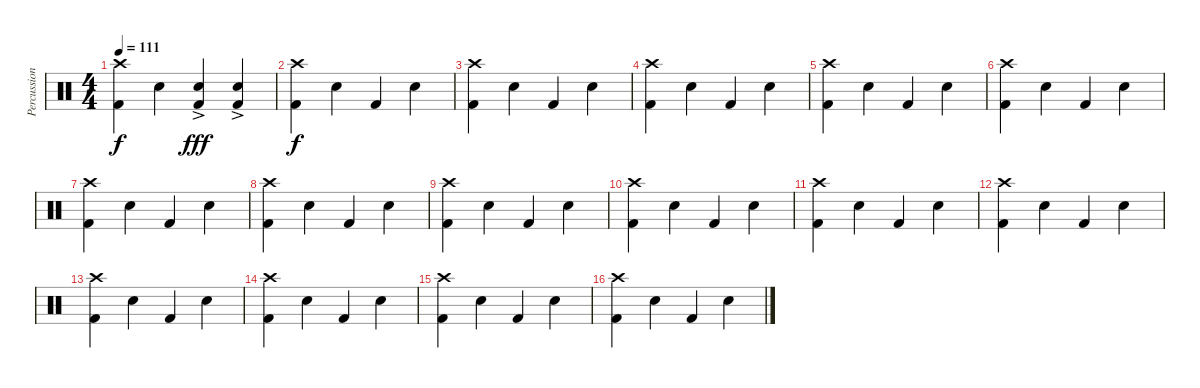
\track ("Percussion" "Percussion") {instrument percussion}
\staff {score}
\articulation defaults
\ts (4 4)
\tempo 111
\clef neutral
\ks c
("Crash high (hit)" "Kick (hit) 2").4{dy f} "Snare (hit) 2".4 ("Snare (hit) 2"{ac} "Kick (hit) 2"{ac}).4{dy fff} ("Snare (hit) 2"{ac} "Kick (hit) 2"{ac}).4 |
("Crash high (hit)" "Kick (hit) 2").4{dy f} "Snare (hit) 2".4 "Kick (hit) 2".4 "Snare (hit) 2".4 |
("Crash high (hit)" "Kick (hit) 2").4 "Snare (hit) 2".4 "Kick (hit) 2".4 "Snare (hit) 2".4 |
("Crash high (hit)" "Kick (hit) 2").4 "Snare (hit) 2".4 "Kick (hit) 2".4 "Snare (hit) 2".4 |
("Crash high (hit)" "Kick (hit) 2").4 "Snare (hit) 2".4 "Kick (hit) 2".4 "Snare (hit) 2".4 |
("Crash high (hit)" "Kick (hit) 2").4 "Snare (hit) 2".4 "Kick (hit) 2".4 "Snare (hit) 2".4 |
("Crash high (hit)" "Kick (hit) 2").4 "Snare (hit) 2".4 "Kick (hit) 2".4 "Snare (hit) 2".4 |
("Crash high (hit)" "Kick (hit) 2").4 "Snare (hit) 2".4 "Kick (hit) 2".4 "Snare (hit) 2".4 |
("Crash high (hit)" "Kick (hit) 2").4 "Snare (hit) 2".4 "Kick (hit) 2".4 "Snare (hit) 2".4 |
("Crash high (hit)" "Kick (hit) 2").4 "Snare (hit) 2".4 "Kick (hit) 2".4 "Snare (hit) 2".4 |
("Crash high (hit)" "Kick (hit) 2").4 "Snare (hit) 2".4 "Kick (hit) 2".4 "Snare (hit) 2".4 |
("Crash high (hit)" "Kick (hit) 2").4 "Snare (hit) 2".4 "Kick (hit) 2".4 "Snare (hit) 2".4 |
("Crash high (hit)" "Kick (hit) 2").4 "Snare (hit) 2".4 "Kick (hit) 2".4 "Snare (hit) 2".4 |
("Crash high (hit)" "Kick (hit) 2").4 "Snare (hit) 2".4 "Kick (hit) 2".4 "Snare (hit) 2".4 |
("Crash high (hit)" "Kick (hit) 2").4 "Snare (hit) 2".4 "Kick (hit) 2".4 "Snare (hit) 2".4 |
("Crash high (hit)" "Kick (hit) 2").4 "Snare (hit) 2".4 "Kick (hit) 2".4 "Snare (hit) 2".4
